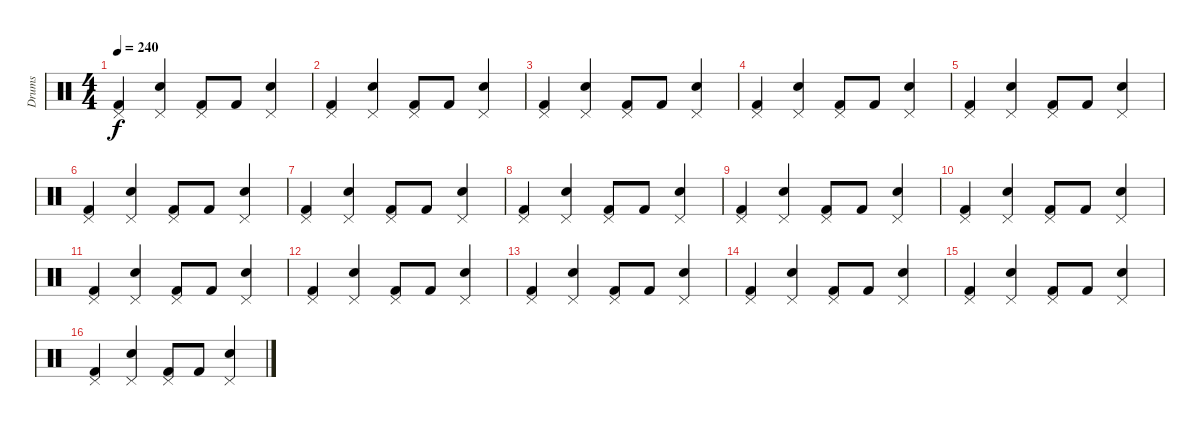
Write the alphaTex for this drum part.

\track ("Drums" "Drums") {instrument percussion}
\staff {score}
\articulation defaults
\ts (4 4)
\tempo 240
\clef neutral
\ks c
("Pedal Hi-Hat (hit)" "Kick (hit) 2").4{dy f} ("Pedal Hi-Hat (hit)" "Snare (hit) 2").4 ("Pedal Hi-Hat (hit)" "Kick (hit) 2").8 "Kick (hit) 2".8 ("Pedal Hi-Hat (hit)" "Snare (hit) 2").4 |
("Pedal Hi-Hat (hit)" "Kick (hit) 2").4 ("Pedal Hi-Hat (hit)" "Snare (hit) 2").4 ("Pedal Hi-Hat (hit)" "Kick (hit) 2").8 "Kick (hit) 2".8 ("Pedal Hi-Hat (hit)" "Snare (hit) 2").4 |
("Pedal Hi-Hat (hit)" "Kick (hit) 2").4 ("Pedal Hi-Hat (hit)" "Snare (hit) 2").4 ("Pedal Hi-Hat (hit)" "Kick (hit) 2").8 "Kick (hit) 2".8 ("Pedal Hi-Hat (hit)" "Snare (hit) 2").4 |
("Pedal Hi-Hat (hit)" "Kick (hit) 2").4 ("Pedal Hi-Hat (hit)" "Snare (hit) 2").4 ("Pedal Hi-Hat (hit)" "Kick (hit) 2").8 "Kick (hit) 2".8 ("Pedal Hi-Hat (hit)" "Snare (hit) 2").4 |
("Pedal Hi-Hat (hit)" "Kick (hit) 2").4 ("Pedal Hi-Hat (hit)" "Snare (hit) 2").4 ("Pedal Hi-Hat (hit)" "Kick (hit) 2").8 "Kick (hit) 2".8 ("Pedal Hi-Hat (hit)" "Snare (hit) 2").4 |
("Pedal Hi-Hat (hit)" "Kick (hit) 2").4 ("Pedal Hi-Hat (hit)" "Snare (hit) 2").4 ("Pedal Hi-Hat (hit)" "Kick (hit) 2").8 "Kick (hit) 2".8 ("Pedal Hi-Hat (hit)" "Snare (hit) 2").4 |
("Pedal Hi-Hat (hit)" "Kick (hit) 2").4 ("Pedal Hi-Hat (hit)" "Snare (hit) 2").4 ("Pedal Hi-Hat (hit)" "Kick (hit) 2").8 "Kick (hit) 2".8 ("Pedal Hi-Hat (hit)" "Snare (hit) 2").4 |
("Pedal Hi-Hat (hit)" "Kick (hit) 2").4 ("Pedal Hi-Hat (hit)" "Snare (hit) 2").4 ("Pedal Hi-Hat (hit)" "Kick (hit) 2").8 "Kick (hit) 2".8 ("Pedal Hi-Hat (hit)" "Snare (hit) 2").4 |
("Pedal Hi-Hat (hit)" "Kick (hit) 2").4 ("Pedal Hi-Hat (hit)" "Snare (hit) 2").4 ("Pedal Hi-Hat (hit)" "Kick (hit) 2").8 "Kick (hit) 2".8 ("Pedal Hi-Hat (hit)" "Snare (hit) 2").4 |
("Pedal Hi-Hat (hit)" "Kick (hit) 2").4 ("Pedal Hi-Hat (hit)" "Snare (hit) 2").4 ("Pedal Hi-Hat (hit)" "Kick (hit) 2").8 "Kick (hit) 2".8 ("Pedal Hi-Hat (hit)" "Snare (hit) 2").4 |
("Pedal Hi-Hat (hit)" "Kick (hit) 2").4 ("Pedal Hi-Hat (hit)" "Snare (hit) 2").4 ("Pedal Hi-Hat (hit)" "Kick (hit) 2").8 "Kick (hit) 2".8 ("Pedal Hi-Hat (hit)" "Snare (hit) 2").4 |
("Pedal Hi-Hat (hit)" "Kick (hit) 2").4 ("Pedal Hi-Hat (hit)" "Snare (hit) 2").4 ("Pedal Hi-Hat (hit)" "Kick (hit) 2").8 "Kick (hit) 2".8 ("Pedal Hi-Hat (hit)" "Snare (hit) 2").4 |
("Pedal Hi-Hat (hit)" "Kick (hit) 2").4 ("Pedal Hi-Hat (hit)" "Snare (hit) 2").4 ("Pedal Hi-Hat (hit)" "Kick (hit) 2").8 "Kick (hit) 2".8 ("Pedal Hi-Hat (hit)" "Snare (hit) 2").4 |
("Pedal Hi-Hat (hit)" "Kick (hit) 2").4 ("Pedal Hi-Hat (hit)" "Snare (hit) 2").4 ("Pedal Hi-Hat (hit)" "Kick (hit) 2").8 "Kick (hit) 2".8 ("Pedal Hi-Hat (hit)" "Snare (hit) 2").4 |
("Pedal Hi-Hat (hit)" "Kick (hit) 2").4 ("Pedal Hi-Hat (hit)" "Snare (hit) 2").4 ("Pedal Hi-Hat (hit)" "Kick (hit) 2").8 "Kick (hit) 2".8 ("Pedal Hi-Hat (hit)" "Snare (hit) 2").4 |
("Pedal Hi-Hat (hit)" "Kick (hit) 2").4 ("Pedal Hi-Hat (hit)" "Snare (hit) 2").4 ("Pedal Hi-Hat (hit)" "Kick (hit) 2").8 "Kick (hit) 2".8 ("Pedal Hi-Hat (hit)" "Snare (hit) 2").4
